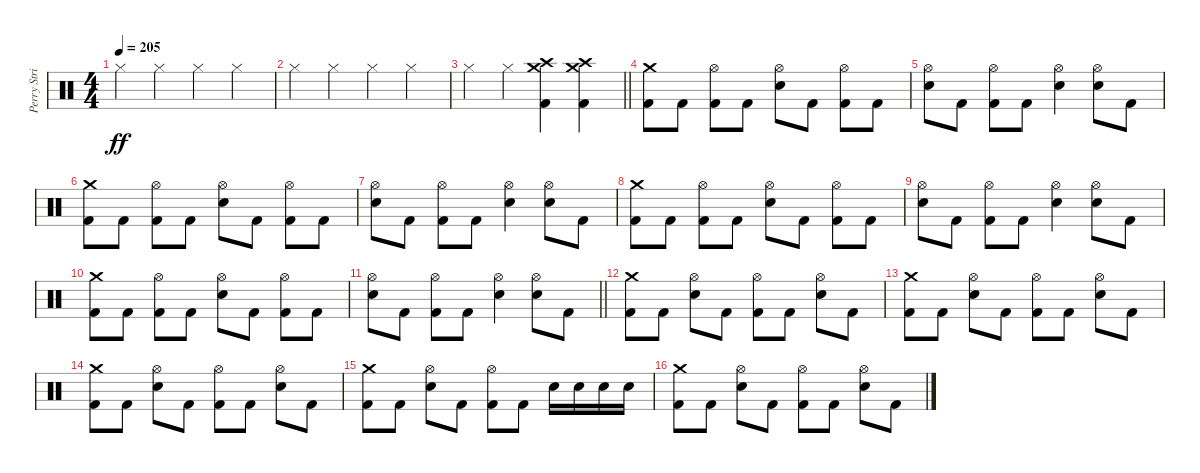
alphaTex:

\track ("Perry Strickland" "Perry Stri") {instrument percussion}
\staff {score}
\articulation defaults
\ts (4 4)
\tempo 205
\clef neutral
\ks c "Hi-Hat (closed)".4{dy ff} "Hi-Hat (closed)".4 "Hi-Hat (closed)".4 "Hi-Hat (closed)".4
|
"Hi-Hat (closed)".4 "Hi-Hat (closed)".4 "Hi-Hat (closed)".4 "Hi-Hat (closed)".4 |
\barLineRight lightlight "Hi-Hat (closed)".4 "Hi-Hat (closed)".4
("Crash high (hit)" "Crash medium (hit)" "Kick (hit) 2").4 ("Crash medium (hit)" "Crash high (hit)" "Kick (hit) 2").4 |
("Crash medium (hit)" "Kick (hit) 2").8 "Kick (hit) 2".8 ("Hi-Hat (open)" "Kick (hit) 2").8 "Kick (hit) 2".8 ("Hi-Hat (open)" "Snare (hit) 2").8 "Kick (hit) 2".8 ("Hi-Hat (open)" "Kick (hit) 2").8 "Kick (hit) 2".8 |
("Hi-Hat (open)" "Snare (hit) 2").8 "Kick (hit) 2".8 ("Hi-Hat (open)" "Kick (hit) 2").8 "Kick (hit) 2".8 ("Hi-Hat (open)" "Snare (hit) 2").4 ("Hi-Hat (open)" "Snare (hit) 2").8 "Kick (hit) 2".8 |
("Crash medium (hit)" "Kick (hit) 2").8 "Kick (hit) 2".8 ("Hi-Hat (open)" "Kick (hit) 2").8 "Kick (hit) 2".8 ("Hi-Hat (open)" "Snare (hit) 2").8 "Kick (hit) 2".8 ("Hi-Hat (open)" "Kick (hit) 2").8 "Kick (hit) 2".8 |
("Hi-Hat (open)" "Snare (hit) 2").8 "Kick (hit) 2".8 ("Hi-Hat (open)" "Kick (hit) 2").8 "Kick (hit) 2".8 ("Hi-Hat (open)" "Snare (hit) 2").4 ("Hi-Hat (open)" "Snare (hit) 2").8 "Kick (hit) 2".8 |
("Crash medium (hit)" "Kick (hit) 2").8 "Kick (hit) 2".8 ("Hi-Hat (open)" "Kick (hit) 2").8 "Kick (hit) 2".8 ("Hi-Hat (open)" "Snare (hit) 2").8 "Kick (hit) 2".8 ("Hi-Hat (open)" "Kick (hit) 2").8 "Kick (hit) 2".8 |
("Hi-Hat (open)" "Snare (hit) 2").8 "Kick (hit) 2".8 ("Hi-Hat (open)" "Kick (hit) 2").8 "Kick (hit) 2".8 ("Hi-Hat (open)" "Snare (hit) 2").4 ("Hi-Hat (open)" "Snare (hit) 2").8 "Kick (hit) 2".8 |
("Crash medium (hit)" "Kick (hit) 2").8 "Kick (hit) 2".8 ("Hi-Hat (open)" "Kick (hit) 2").8 "Kick (hit) 2".8 ("Hi-Hat (open)" "Snare (hit) 2").8 "Kick (hit) 2".8 ("Hi-Hat (open)" "Kick (hit) 2").8 "Kick (hit) 2".8 |
\barLineRight lightlight
("Hi-Hat (open)" "Snare (hit) 2").8 "Kick (hit) 2".8 ("Hi-Hat (open)" "Kick (hit) 2").8 "Kick (hit) 2".8 ("Hi-Hat (open)" "Snare (hit) 2").4 ("Hi-Hat (open)" "Snare (hit) 2").8 "Kick (hit) 2".8 |
("Crash medium (hit)" "Kick (hit) 2").8 "Kick (hit) 2".8 ("Hi-Hat (open)" "Snare (hit) 2").8 "Kick (hit) 2".8 ("Hi-Hat (open)" "Kick (hit) 2").8 "Kick (hit) 2".8 ("Hi-Hat (open)" "Snare (hit) 2").8 "Kick (hit) 2".8 |
("Crash medium (hit)" "Kick (hit) 2").8 "Kick (hit) 2".8 ("Hi-Hat (open)" "Snare (hit) 2").8 "Kick (hit) 2".8 ("Hi-Hat (open)" "Kick (hit) 2").8 "Kick (hit) 2".8 ("Hi-Hat (open)" "Snare (hit) 2").8 "Kick (hit) 2".8 |
("Crash medium (hit)" "Kick (hit) 2").8 "Kick (hit) 2".8 ("Hi-Hat (open)" "Snare (hit) 2").8 "Kick (hit) 2".8 ("Hi-Hat (open)" "Kick (hit) 2").8 "Kick (hit) 2".8 ("Hi-Hat (open)" "Snare (hit) 2").8 "Kick (hit) 2".8 |
("Crash medium (hit)" "Kick (hit) 2").8 "Kick (hit) 2".8 ("Hi-Hat (open)" "Snare (hit) 2").8 "Kick (hit) 2".8 ("Hi-Hat (open)" "Kick (hit) 2").8 "Kick (hit) 2".8 "Snare (hit) 2".16 "Snare (hit) 2".16 "Snare (hit) 2".16 "Snare (hit) 2".16 |
("Crash medium (hit)" "Kick (hit) 2").8 "Kick (hit) 2".8 ("Hi-Hat (open)" "Snare (hit) 2").8 "Kick (hit) 2".8 ("Hi-Hat (open)" "Kick (hit) 2").8 "Kick (hit) 2".8 ("Hi-Hat (open)" "Snare (hit) 2").8 "Kick (hit) 2".8
